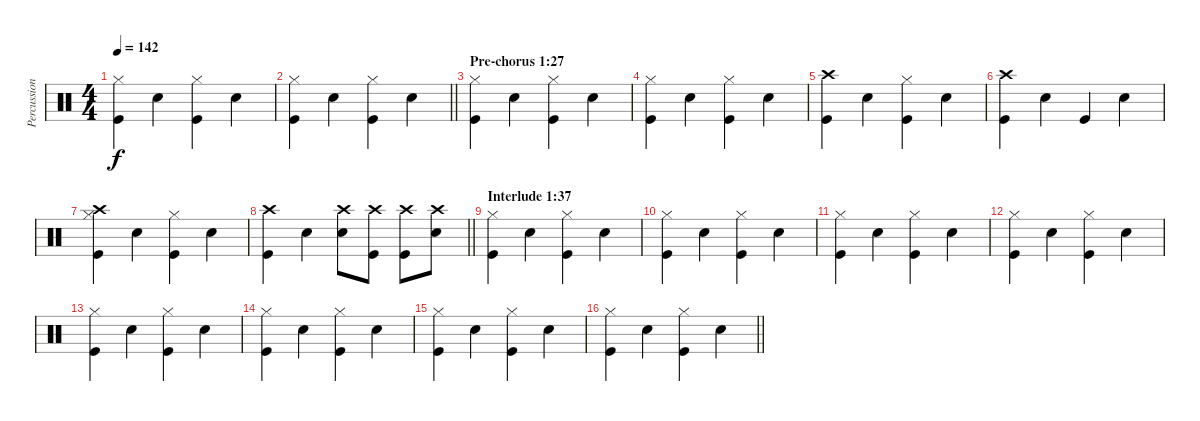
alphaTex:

\track ("Percussion" "Percussion") {instrument percussion}
\staff {score}
\articulation defaults
\ts (4 4)
\tempo 142
\clef neutral
\ks c
("Hi-Hat (closed)" "Kick (hit)").4{dy f} "Snare (hit) 2".4 ("Hi-Hat (closed)" "Kick (hit)").4 "Snare (hit) 2".4 |
\barLineRight lightlight
("Hi-Hat (closed)" "Kick (hit)").4 "Snare (hit) 2".4 ("Hi-Hat (closed)" "Kick (hit)").4 "Snare (hit) 2".4 |
\section ("" "Pre-chorus 1:27")
("Hi-Hat (closed)" "Kick (hit)").4 "Snare (hit) 2".4 ("Hi-Hat (closed)" "Kick (hit)").4 "Snare (hit) 2".4 |
("Hi-Hat (closed)" "Kick (hit)").4 "Snare (hit) 2".4 ("Hi-Hat (closed)" "Kick (hit)").4 "Snare (hit) 2".4 |
("Crash high (hit)" "Kick (hit)").4 "Snare (hit) 2".4 ("Hi-Hat (closed)" "Kick (hit)").4 "Snare (hit) 2".4 |
("Crash high (hit)" "Kick (hit)").4 "Snare (hit) 2".4 "Kick (hit)".4 "Snare (hit) 2".4 |
("Crash high (hit)" "Hi-Hat (closed)" "Kick (hit)").4 "Snare (hit) 2".4 ("Hi-Hat (closed)" "Kick (hit)").4 "Snare (hit) 2".4 |
\barLineRight lightlight
("Crash high (hit)" "Kick (hit)").4 "Snare (hit) 2".4 ("Crash high (hit)" "Snare (hit) 2").8 ("Crash high (hit)" "Kick (hit)").8 ("Crash high (hit)" "Kick (hit)").8 ("Crash high (hit)" "Snare (hit) 2").8 |
\section ("" "Interlude 1:37")
("Hi-Hat (closed)" "Kick (hit)").4 "Snare (hit) 2".4 ("Hi-Hat (closed)" "Kick (hit)").4 "Snare (hit) 2".4 |
("Hi-Hat (closed)" "Kick (hit)").4 "Snare (hit) 2".4 ("Hi-Hat (closed)" "Kick (hit)").4 "Snare (hit) 2".4 |
("Hi-Hat (closed)" "Kick (hit)").4 "Snare (hit) 2".4 ("Hi-Hat (closed)" "Kick (hit)").4 "Snare (hit) 2".4 |
("Hi-Hat (closed)" "Kick (hit)").4 "Snare (hit) 2".4 ("Hi-Hat (closed)" "Kick (hit)").4 "Snare (hit) 2".4 |
("Hi-Hat (closed)" "Kick (hit)").4 "Snare (hit) 2".4 ("Hi-Hat (closed)" "Kick (hit)").4 "Snare (hit) 2".4 |
("Hi-Hat (closed)" "Kick (hit)").4 "Snare (hit) 2".4 ("Hi-Hat (closed)" "Kick (hit)").4 "Snare (hit) 2".4 |
("Hi-Hat (closed)" "Kick (hit)").4 "Snare (hit) 2".4 ("Hi-Hat (closed)" "Kick (hit)").4 "Snare (hit) 2".4 |
\barLineRight lightlight
("Hi-Hat (closed)" "Kick (hit)").4 "Snare (hit) 2".4 ("Hi-Hat (closed)" "Kick (hit)").4 "Snare (hit) 2".4
